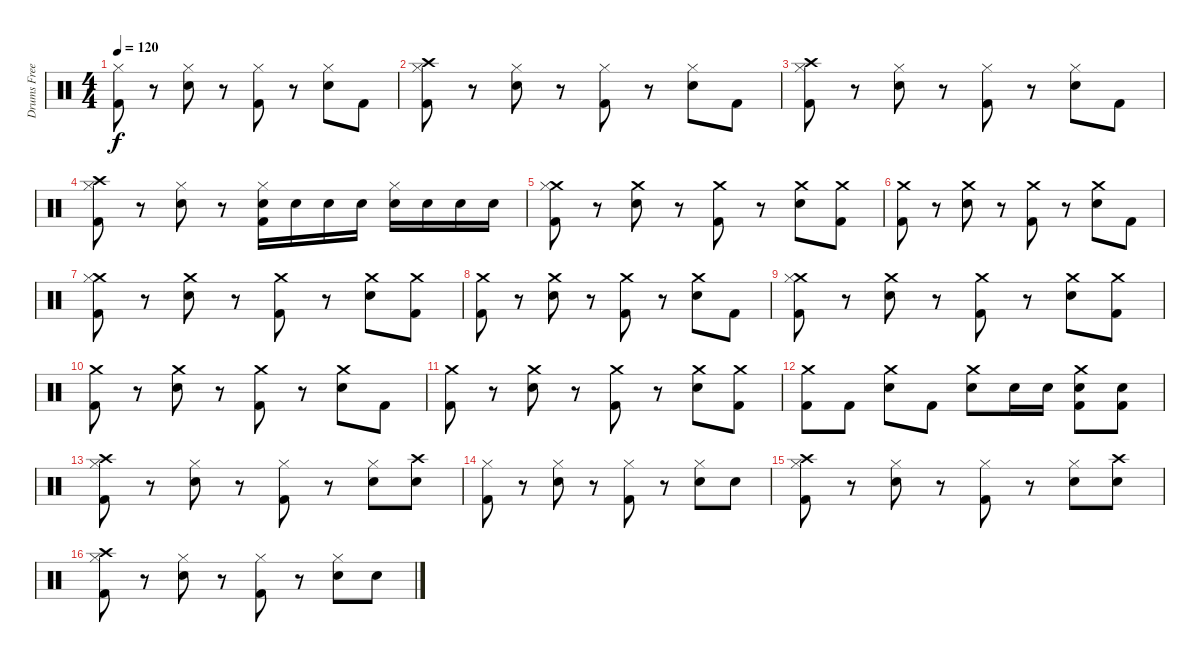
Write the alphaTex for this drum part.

\track ("Drums Freese" "Drums Free") {instrument percussion}
\staff {score}
\articulation defaults
\ts (4 4)
\tempo 120
\clef neutral
\ks c
("Hi-Hat (closed)" "Kick (hit) 2").8{dy f} r.8 ("Hi-Hat (closed)" "Snare (hit) 2").8 r.8 ("Hi-Hat (closed)" "Kick (hit) 2").8 r.8 ("Hi-Hat (closed)" "Snare (hit) 2").8 "Kick (hit) 2".8 |
("Hi-Hat (closed)" "Crash high (hit)" "Kick (hit) 2").8 r.8 ("Hi-Hat (closed)" "Snare (hit) 2").8 r.8 ("Hi-Hat (closed)" "Kick (hit) 2").8 r.8 ("Hi-Hat (closed)" "Snare (hit) 2").8 "Kick (hit) 2".8 |
("Hi-Hat (closed)" "Crash high (hit)" "Kick (hit) 2").8 r.8 ("Hi-Hat (closed)" "Snare (hit) 2").8 r.8 ("Hi-Hat (closed)" "Kick (hit) 2").8 r.8 ("Hi-Hat (closed)" "Snare (hit) 2").8 "Kick (hit) 2".8 |
("Hi-Hat (closed)" "Crash high (hit)" "Kick (hit) 2").8 r.8 ("Hi-Hat (closed)" "Snare (hit) 2").8 r.8 ("Hi-Hat (closed)" "Snare (hit) 2" "Kick (hit) 2").16 "Snare (hit) 2".16 "Snare (hit) 2".16 "Snare (hit) 2".16 ("Hi-Hat (closed)" "Snare (hit) 2").16 "Snare (hit) 2".16 "Snare (hit) 2".16 "Snare (hit) 2".16 |
("Crash medium (hit)" "Hi-Hat (closed)" "Kick (hit) 2").8 r.8 ("Crash medium (hit)" "Snare (hit) 2").8 r.8 ("Crash medium (hit)" "Kick (hit) 2").8 r.8 ("Crash medium (hit)" "Snare (hit) 2").8 ("Crash medium (hit)" "Kick (hit) 2").8 |
("Crash medium (hit)" "Kick (hit) 2").8 r.8 ("Crash medium (hit)" "Snare (hit) 2").8 r.8 ("Crash medium (hit)" "Kick (hit) 2").8 r.8 ("Crash medium (hit)" "Snare (hit) 2").8 "Kick (hit) 2".8 |
("Crash medium (hit)" "Hi-Hat (closed)" "Kick (hit) 2").8 r.8 ("Crash medium (hit)" "Snare (hit) 2").8 r.8 ("Crash medium (hit)" "Kick (hit) 2").8 r.8 ("Crash medium (hit)" "Snare (hit) 2").8 ("Crash medium (hit)" "Kick (hit) 2").8 |
("Crash medium (hit)" "Kick (hit) 2").8 r.8 ("Crash medium (hit)" "Snare (hit) 2").8 r.8 ("Crash medium (hit)" "Kick (hit) 2").8 r.8 ("Crash medium (hit)" "Snare (hit) 2").8 "Kick (hit) 2".8 |
("Crash medium (hit)" "Hi-Hat (closed)" "Kick (hit) 2").8 r.8 ("Crash medium (hit)" "Snare (hit) 2").8 r.8 ("Crash medium (hit)" "Kick (hit) 2").8 r.8 ("Crash medium (hit)" "Snare (hit) 2").8 ("Crash medium (hit)" "Kick (hit) 2").8 |
("Crash medium (hit)" "Kick (hit) 2").8 r.8 ("Crash medium (hit)" "Snare (hit) 2").8 r.8 ("Crash medium (hit)" "Kick (hit) 2").8 r.8 ("Crash medium (hit)" "Snare (hit) 2").8 "Kick (hit) 2".8 |
("Crash medium (hit)" "Kick (hit) 2").8 r.8 ("Crash medium (hit)" "Snare (hit) 2").8 r.8 ("Crash medium (hit)" "Kick (hit) 2").8 r.8 ("Crash medium (hit)" "Snare (hit) 2").8 ("Crash medium (hit)" "Kick (hit) 2").8 |
("Crash medium (hit)" "Kick (hit) 2").8 "Kick (hit) 2".8 ("Crash medium (hit)" "Snare (hit) 2").8 "Kick (hit) 2".8 ("Crash medium (hit)" "Snare (hit) 2").8 "Snare (hit) 2".16 "Snare (hit) 2".16 ("Crash medium (hit)" "Snare (hit) 2" "Kick (hit) 2").8 ("Snare (hit) 2" "Kick (hit) 2").8 |
("Hi-Hat (closed)" "Crash high (hit)" "Kick (hit) 2").8 r.8 ("Hi-Hat (closed)" "Snare (hit) 2").8 r.8 ("Hi-Hat (closed)" "Kick (hit) 2").8 r.8 ("Hi-Hat (closed)" "Snare (hit) 2").8 ("Crash high (hit)" "Snare (hit) 2").8 |
("Hi-Hat (closed)" "Kick (hit) 2").8 r.8 ("Hi-Hat (closed)" "Snare (hit) 2").8 r.8 ("Hi-Hat (closed)" "Kick (hit) 2").8 r.8 ("Hi-Hat (closed)" "Snare (hit) 2").8 "Snare (hit) 2".8 |
("Hi-Hat (closed)" "Crash high (hit)" "Kick (hit) 2").8 r.8 ("Hi-Hat (closed)" "Snare (hit) 2").8 r.8 ("Hi-Hat (closed)" "Kick (hit) 2").8 r.8 ("Hi-Hat (closed)" "Snare (hit) 2").8 ("Crash high (hit)" "Snare (hit) 2").8 |
("Hi-Hat (closed)" "Crash high (hit)" "Kick (hit) 2").8 r.8 ("Hi-Hat (closed)" "Snare (hit) 2").8 r.8 ("Hi-Hat (closed)" "Kick (hit) 2").8 r.8 ("Hi-Hat (closed)" "Snare (hit) 2").8 "Snare (hit) 2".8
